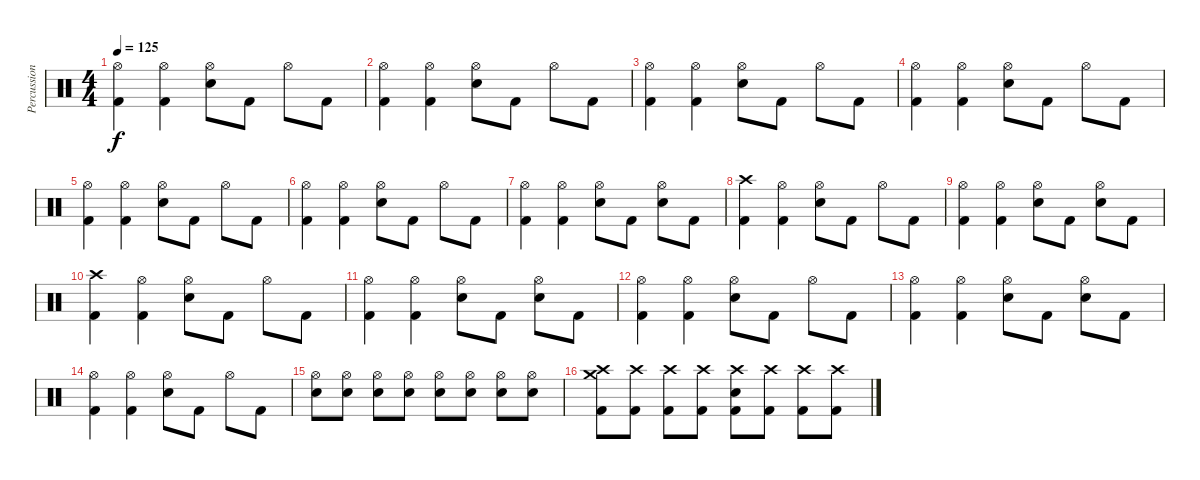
\track ("Percussion" "Percussion") {instrument percussion}
\staff {score}
\articulation defaults
\ts (4 4)
\tempo 125
\clef neutral
\ks c
("Hi-Hat (open)" "Kick (hit) 2").4{dy f} ("Hi-Hat (open)" "Kick (hit) 2").4 ("Hi-Hat (open)" "Electric Snare (hit)").8 "Kick (hit) 2".8 "Hi-Hat (open)".8 "Kick (hit) 2".8 |
("Hi-Hat (open)" "Kick (hit) 2").4 ("Hi-Hat (open)" "Kick (hit) 2").4 ("Hi-Hat (open)" "Electric Snare (hit)").8 "Kick (hit) 2".8 "Hi-Hat (open)".8 "Kick (hit) 2".8 |
("Hi-Hat (open)" "Kick (hit) 2").4 ("Hi-Hat (open)" "Kick (hit) 2").4 ("Hi-Hat (open)" "Electric Snare (hit)").8 "Kick (hit) 2".8 "Hi-Hat (open)".8 "Kick (hit) 2".8 |
("Hi-Hat (open)" "Kick (hit) 2").4 ("Hi-Hat (open)" "Kick (hit) 2").4 ("Hi-Hat (open)" "Electric Snare (hit)").8 "Kick (hit) 2".8 "Hi-Hat (open)".8 "Kick (hit) 2".8 |
("Hi-Hat (open)" "Kick (hit) 2").4 ("Hi-Hat (open)" "Kick (hit) 2").4 ("Hi-Hat (open)" "Electric Snare (hit)").8 "Kick (hit) 2".8 "Hi-Hat (open)".8 "Kick (hit) 2".8 |
("Hi-Hat (open)" "Kick (hit) 2").4 ("Hi-Hat (open)" "Kick (hit) 2").4 ("Hi-Hat (open)" "Electric Snare (hit)").8 "Kick (hit) 2".8 "Hi-Hat (open)".8 "Kick (hit) 2".8 |
("Hi-Hat (open)" "Kick (hit) 2").4 ("Hi-Hat (open)" "Kick (hit) 2").4 ("Hi-Hat (open)" "Electric Snare (hit)").8 "Kick (hit) 2".8 ("Hi-Hat (open)" "Electric Snare (hit)").8 "Kick (hit) 2".8 |
("Crash high (hit)" "Kick (hit) 2").4 ("Hi-Hat (open)" "Kick (hit) 2").4 ("Hi-Hat (open)" "Electric Snare (hit)").8 "Kick (hit) 2".8 "Hi-Hat (open)".8 "Kick (hit) 2".8 |
("Hi-Hat (open)" "Kick (hit) 2").4 ("Hi-Hat (open)" "Kick (hit) 2").4 ("Hi-Hat (open)" "Electric Snare (hit)").8 "Kick (hit) 2".8 ("Hi-Hat (open)" "Electric Snare (hit)").8 "Kick (hit) 2".8 |
("Crash high (hit)" "Kick (hit) 2").4 ("Hi-Hat (open)" "Kick (hit) 2").4 ("Hi-Hat (open)" "Electric Snare (hit)").8 "Kick (hit) 2".8 "Hi-Hat (open)".8 "Kick (hit) 2".8 |
("Hi-Hat (open)" "Kick (hit) 2").4 ("Hi-Hat (open)" "Kick (hit) 2").4 ("Hi-Hat (open)" "Electric Snare (hit)").8 "Kick (hit) 2".8 ("Hi-Hat (open)" "Electric Snare (hit)").8 "Kick (hit) 2".8 |
("Hi-Hat (open)" "Kick (hit) 2").4 ("Hi-Hat (open)" "Kick (hit) 2").4 ("Hi-Hat (open)" "Electric Snare (hit)").8 "Kick (hit) 2".8 "Hi-Hat (open)".8 "Kick (hit) 2".8 |
("Hi-Hat (open)" "Kick (hit) 2").4 ("Hi-Hat (open)" "Kick (hit) 2").4 ("Hi-Hat (open)" "Electric Snare (hit)").8 "Kick (hit) 2".8 ("Hi-Hat (open)" "Electric Snare (hit)").8 "Kick (hit) 2".8 |
("Hi-Hat (open)" "Kick (hit) 2").4 ("Hi-Hat (open)" "Kick (hit) 2").4 ("Hi-Hat (open)" "Electric Snare (hit)").8 "Kick (hit) 2".8 "Hi-Hat (open)".8 "Kick (hit) 2".8 |
("Hi-Hat (open)" "Electric Snare (hit)").8 ("Hi-Hat (open)" "Electric Snare (hit)").8 ("Hi-Hat (open)" "Electric Snare (hit)").8 ("Hi-Hat (open)" "Electric Snare (hit)").8 ("Hi-Hat (open)" "Electric Snare (hit)").8 ("Hi-Hat (open)" "Electric Snare (hit)").8 ("Hi-Hat (open)" "Electric Snare (hit)").8 ("Hi-Hat (open)" "Electric Snare (hit)").8 |
("Crash high (hit)" "Crash medium (hit)" "Kick (hit) 2").8 ("Crash high (hit)" "Kick (hit) 2").8 ("Crash high (hit)" "Kick (hit) 2").8 ("Crash high (hit)" "Kick (hit) 2").8 ("Crash high (hit)" "Electric Snare (hit)" "Kick (hit) 2").8 ("Crash high (hit)" "Kick (hit) 2").8 ("Crash high (hit)" "Kick (hit) 2").8 ("Crash high (hit)" "Kick (hit) 2").8
